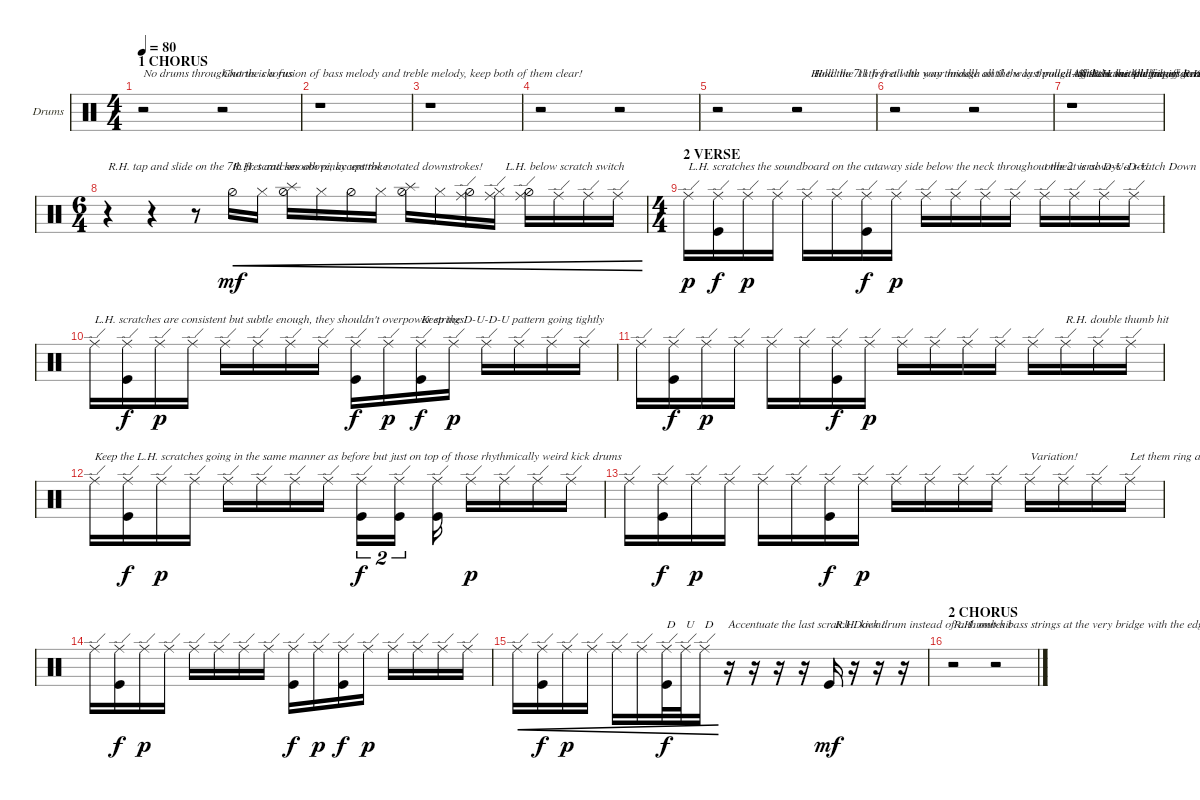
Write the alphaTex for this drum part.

\defaultSystemsLayout 4
\bracketExtendMode groupsimilarinstruments
\firstSystemTrackNameOrientation horizontal
\otherSystemsTrackNameOrientation horizontal
\track ("Guitar Percussion" "Drums") {instrument percussion}
\staff {score}
\articulation defaults
\ts (4 4)
\section ("" "1 CHORUS")
\tempo 80
\clef neutral
\ks c
r.2{txt "No drums throughout the chorus" dy mf} r.2{txt "Chorus is a fusion of bass melody and treble melody, keep both of them clear!"} |
r.1 |
r.1 |
r.2{txt "                                                                                          Hold the 7th fret all the way through until the last pulled-off R.H. middle finger gentle upstroke"} r.2 |
r.2{txt "                                Hold the 11th fret with your middle all the way through until the last pulled-off R.H. middle finger gentle upstroke again    Sustain the chord"} r.2 |
r.2{txt "                                                             Sustain the 4th fret interval with R.H. middle and index, then pull off index first and then middle to open string"} r.2 |
r.1{txt "All the same techniques here as before, but keep an eye for the next bar!"} |
\ts (6 4)
r.4{txt "R.H. tap and slide on the 7th fret and smooth pinky upstroke"} r.4 r.8 "Hi-Hat (half)".16{txt "R.H. scratches above, accent the notated downstrokes!" cre} "Hi-Hat (closed)".16{cre} ("Splash (hit)" "Hi-Hat (half)").16{cre} "Hi-Hat (closed)".16{cre} "Hi-Hat (half)".16{cre} "Hi-Hat (closed)".16{cre} ("Hi-Hat (half)" "Splash (hit)").16{cre} "Hi-Hat (closed)".16{cre} ("Hi-Hat (half)" "Ride (edge)").16{cre} ("Hi-Hat (closed)" "Ride (edge)").16{txt "  L.H. below scratch switch" cre} ("Hi-Hat (half)" "Ride (edge)").16{cre} "Ride (edge)".16{cre} "Ride (edge)".16{cre} "Ride (edge)".16{cre} |
\ts (4 4)
\section ("" "2 VERSE")
"Ride (edge)".16{txt "L.H. scratches the soundboard on the cutaway side below the neck throughout the 2 verse D-U-D-U" dy p} ("Kick (hit)" "Ride (edge)").16{dy f} "Ride (edge)".16{dy p} "Ride (edge)".16 "Ride (edge)".16 "Ride (edge)".16 ("Kick (hit)" "Ride (edge)").16{dy f} "Ride (edge)".16{dy p} "Ride (edge)".16 "Ride (edge)".16 "Ride (edge)".16 "Ride (edge)".16 "Ride (edge)".16{txt "onbeat is always a scratch Down"} "Ride (edge)".16 "Ride (edge)".16 "Ride (edge)".16 |
"Ride (edge)".16{txt "L.H. scratches are consistent but subtle enough, they shouldn't overpower strings"} ("Kick (hit)" "Ride (edge)").16{dy f} "Ride (edge)".16{dy p} "Ride (edge)".16 "Ride (edge)".16 "Ride (edge)".16 "Ride (edge)".16 "Ride (edge)".16 ("Kick (hit)" "Ride (edge)").16{dy f} "Ride (edge)".16{dy p} ("Kick (hit)" "Ride (edge)").16{txt "Keep the D-U-D-U pattern going tightly" dy f} "Ride (edge)".16{dy p} "Ride (edge)".16 "Ride (edge)".16 "Ride (edge)".16 "Ride (edge)".16 |
"Ride (edge)".16 ("Kick (hit)" "Ride (edge)").16{dy f} "Ride (edge)".16{dy p} "Ride (edge)".16 "Ride (edge)".16 "Ride (edge)".16 ("Kick (hit)" "Ride (edge)").16{dy f} "Ride (edge)".16{dy p} "Ride (edge)".16 "Ride (edge)".16 "Ride (edge)".16 "Ride (edge)".16 "Ride (edge)".16 "Ride (edge)".16{txt "R.H. double thumb hit"} "Ride (edge)".16 "Ride (edge)".16 |
"Ride (edge)".16{txt "Keep the L.H. scratches going in the same manner as before but just on top of those rhythmically weird kick drums"} ("Kick (hit)" "Ride (edge)").16{dy f} "Ride (edge)".16{dy p} "Ride (edge)".16 "Ride (edge)".16 "Ride (edge)".16 "Ride (edge)".16 "Ride (edge)".16 ("Ride (edge)" "Kick (hit)").16{tu (2 3) dy f} ("Ride (edge)" "Kick (hit)").16{tu (2 3)} ("Ride (edge)" "Kick (hit)").16 "Ride (edge)".16{dy p} "Ride (edge)".16 "Ride (edge)".16 "Ride (edge)".16 |
"Ride (edge)".16 ("Kick (hit)" "Ride (edge)").16{dy f} "Ride (edge)".16{dy p} "Ride (edge)".16 "Ride (edge)".16 "Ride (edge)".16 ("Kick (hit)" "Ride (edge)").16{dy f} "Ride (edge)".16{dy p} "Ride (edge)".16 "Ride (edge)".16 "Ride (edge)".16 "Ride (edge)".16 "Ride (edge)".16{txt "Variation!"} "Ride (edge)".16 "Ride (edge)".16 "Ride (edge)".16{txt "Let them ring and shine!"} |
"Ride (edge)".16 ("Kick (hit)" "Ride (edge)").16{dy f} "Ride (edge)".16{dy p} "Ride (edge)".16 "Ride (edge)".16 "Ride (edge)".16 "Ride (edge)".16 "Ride (edge)".16 ("Kick (hit)" "Ride (edge)").16{dy f} "Ride (edge)".16{dy p} ("Kick (hit)" "Ride (edge)").16{dy f} "Ride (edge)".16{dy p} "Ride (edge)".16 "Ride (edge)".16 "Ride (edge)".16 "Ride (edge)".16 |
"Ride (edge)".16{cre} ("Kick (hit)" "Ride (edge)").16{cre dy f} "Ride (edge)".16{cre dy p} "Ride (edge)".16{cre} "Ride (edge)".16{cre} "Ride (edge)".16{cre} ("Kick (hit)" "Ride (edge)").32{txt "D" cre dy f} "Ride (edge)".32{txt "U" cre} "Ride (edge)".16{txt "D     Accentuate the last scratch Down!" cre} r.16 r.16 r.16 r.16 "Kick (hit)".16{txt "  R.H. kick drum instead of a thumb hit" dy mf} r.16 r.16 r.16 |
\section ("" "2 CHORUS")
r.2{txt "R.H. mutes bass strings at the very bridge with the edge of the palm, but make sure top strings are open so the slap harmonic notes keep sustaining!"} r.2
